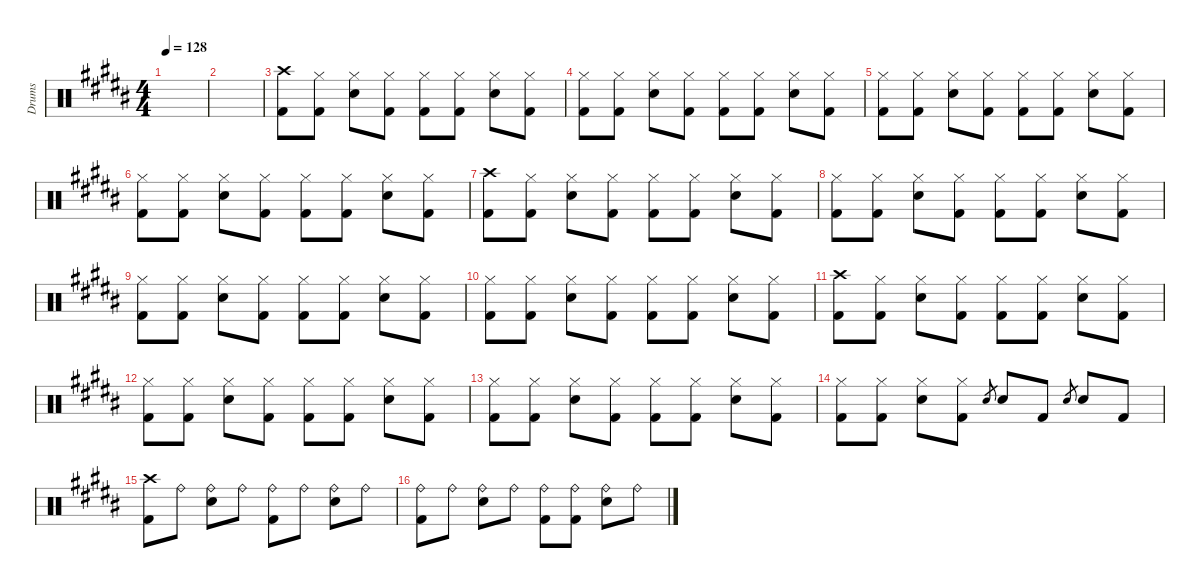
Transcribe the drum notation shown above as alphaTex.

\hideDynamics
\bracketExtendMode nobrackets
\otherSystemsTrackNameOrientation horizontal
\track ("Drumkit" "Drums") {instrument percussion}
\staff {score}
\articulation defaults
\ts (4 4)
\tempo 128
\clef neutral
\scale
0.474178
\ks b
|
\scale
0.262911 |
\scale
0.262911 ("Crash high (hit)"{acc bb} "Kick (hit) 2"{acc bb}).8{beam Down} ("Kick (hit) 2"{acc bb} "Hi-Hat (closed)"{acc bb}).8{beam Down} ("Snare (hit) 2"{acc bb} "Hi-Hat (closed)"{acc bb}).8{beam Down} ("Kick (hit) 2"{acc bb} "Hi-Hat (closed)"{acc bb}).8{beam Down} ("Kick (hit) 2"{acc bb} "Hi-Hat (closed)"{acc bb}).8{beam Down} ("Kick (hit) 2"{acc bb} "Hi-Hat (closed)"{acc bb}).8{beam Down} ("Snare (hit) 2"{acc bb} "Hi-Hat (closed)"{acc bb}).8{beam Down} ("Kick (hit) 2"{acc bb} "Hi-Hat (closed)"{acc bb}).8{beam Down} |
\scale
0.333333 ("Kick (hit) 2"{acc bb} "Hi-Hat (closed)"{acc bb}).8{beam Down} ("Kick (hit) 2"{acc bb} "Hi-Hat (closed)"{acc bb}).8{beam Down} ("Snare (hit) 2"{acc bb} "Hi-Hat (closed)"{acc bb}).8{beam Down} ("Kick (hit) 2"{acc bb} "Hi-Hat (closed)"{acc bb}).8{beam Down} ("Kick (hit) 2"{acc bb} "Hi-Hat (closed)"{acc bb}).8{beam Down} ("Kick (hit) 2"{acc bb} "Hi-Hat (closed)"{acc bb}).8{beam Down} ("Snare (hit) 2"{acc bb} "Hi-Hat (closed)"{acc bb}).8{beam Down} ("Kick (hit) 2"{acc bb} "Hi-Hat (closed)"{acc bb}).8{beam Down} |
\scale
0.333333 ("Kick (hit) 2"{acc bb} "Hi-Hat (closed)"{acc bb}).8{beam Down} ("Kick (hit) 2"{acc bb} "Hi-Hat (closed)"{acc bb}).8{beam Down} ("Snare (hit) 2"{acc bb} "Hi-Hat (closed)"{acc bb}).8{beam Down} ("Kick (hit) 2"{acc bb} "Hi-Hat (closed)"{acc bb}).8{beam Down} ("Kick (hit) 2"{acc bb} "Hi-Hat (closed)"{acc bb}).8{beam Down} ("Kick (hit) 2"{acc bb} "Hi-Hat (closed)"{acc bb}).8{beam Down} ("Snare (hit) 2"{acc bb} "Hi-Hat (closed)"{acc bb}).8{beam Down} ("Kick (hit) 2"{acc bb} "Hi-Hat (closed)"{acc bb}).8{beam Down} |
\scale
0.333333 ("Kick (hit) 2"{acc bb} "Hi-Hat (closed)"{acc bb}).8{beam Down} ("Kick (hit) 2"{acc bb} "Hi-Hat (closed)"{acc bb}).8{beam Down} ("Snare (hit) 2"{acc bb} "Hi-Hat (closed)"{acc bb}).8{beam Down} ("Kick (hit) 2"{acc bb} "Hi-Hat (closed)"{acc bb}).8{beam Down} ("Kick (hit) 2"{acc bb} "Hi-Hat (closed)"{acc bb}).8{beam Down} ("Kick (hit) 2"{acc bb} "Hi-Hat (closed)"{acc bb}).8{beam Down} ("Snare (hit) 2"{acc bb} "Hi-Hat (closed)"{acc bb}).8{beam Down} ("Kick (hit) 2"{acc bb} "Hi-Hat (closed)"{acc bb}).8{beam Down} |
\scale
0.333333 ("Crash high (hit)"{acc bb} "Kick (hit) 2"{acc bb}).8{beam Down} ("Kick (hit) 2"{acc bb} "Hi-Hat (closed)"{acc bb}).8{beam Down} ("Snare (hit) 2"{acc bb} "Hi-Hat (closed)"{acc bb}).8{beam Down} ("Kick (hit) 2"{acc bb} "Hi-Hat (closed)"{acc bb}).8{beam Down} ("Kick (hit) 2"{acc bb} "Hi-Hat (closed)"{acc bb}).8{beam Down} ("Kick (hit) 2"{acc bb} "Hi-Hat (closed)"{acc bb}).8{beam Down} ("Snare (hit) 2"{acc bb} "Hi-Hat (closed)"{acc bb}).8{beam Down} ("Kick (hit) 2"{acc bb} "Hi-Hat (closed)"{acc bb}).8{beam Down} |
\scale
0.333333 ("Kick (hit) 2"{acc bb} "Hi-Hat (closed)"{acc bb}).8{beam Down} ("Kick (hit) 2"{acc bb} "Hi-Hat (closed)"{acc bb}).8{beam Down} ("Snare (hit) 2"{acc bb} "Hi-Hat (closed)"{acc bb}).8{beam Down} ("Kick (hit) 2"{acc bb} "Hi-Hat (closed)"{acc bb}).8{beam Down} ("Kick (hit) 2"{acc bb} "Hi-Hat (closed)"{acc bb}).8{beam Down} ("Kick (hit) 2"{acc bb} "Hi-Hat (closed)"{acc bb}).8{beam Down} ("Snare (hit) 2"{acc bb} "Hi-Hat (closed)"{acc bb}).8{beam Down} ("Kick (hit) 2"{acc bb} "Hi-Hat (closed)"{acc bb}).8{beam Down} |
\scale
0.333333 ("Kick (hit) 2"{acc bb} "Hi-Hat (closed)"{acc bb}).8{beam Down} ("Kick (hit) 2"{acc bb} "Hi-Hat (closed)"{acc bb}).8{beam Down} ("Snare (hit) 2"{acc bb} "Hi-Hat (closed)"{acc bb}).8{beam Down} ("Kick (hit) 2"{acc bb} "Hi-Hat (closed)"{acc bb}).8{beam Down} ("Kick (hit) 2"{acc bb} "Hi-Hat (closed)"{acc bb}).8{beam Down} ("Kick (hit) 2"{acc bb} "Hi-Hat (closed)"{acc bb}).8{beam Down} ("Snare (hit) 2"{acc bb} "Hi-Hat (closed)"{acc bb}).8{beam Down} ("Kick (hit) 2"{acc bb} "Hi-Hat (closed)"{acc bb}).8{beam Down} |
\scale
0.333333 ("Kick (hit) 2"{acc bb} "Hi-Hat (closed)"{acc bb}).8{beam Down} ("Kick (hit) 2"{acc bb} "Hi-Hat (closed)"{acc bb}).8{beam Down} ("Snare (hit) 2"{acc bb} "Hi-Hat (closed)"{acc bb}).8{beam Down} ("Kick (hit) 2"{acc bb} "Hi-Hat (closed)"{acc bb}).8{beam Down} ("Kick (hit) 2"{acc bb} "Hi-Hat (closed)"{acc bb}).8{beam Down} ("Kick (hit) 2"{acc bb} "Hi-Hat (closed)"{acc bb}).8{beam Down} ("Snare (hit) 2"{acc bb} "Hi-Hat (closed)"{acc bb}).8{beam Down} ("Kick (hit) 2"{acc bb} "Hi-Hat (closed)"{acc bb}).8{beam Down} |
\scale
0.333333 ("Crash high (hit)"{acc bb} "Kick (hit) 2"{acc bb}).8{beam Down} ("Kick (hit) 2"{acc bb} "Hi-Hat (closed)"{acc bb}).8{beam Down} ("Snare (hit) 2"{acc bb} "Hi-Hat (closed)"{acc bb}).8{beam Down} ("Kick (hit) 2"{acc bb} "Hi-Hat (closed)"{acc bb}).8{beam Down} ("Kick (hit) 2"{acc bb} "Hi-Hat (closed)"{acc bb}).8{beam Down} ("Kick (hit) 2"{acc bb} "Hi-Hat (closed)"{acc bb}).8{beam Down} ("Snare (hit) 2"{acc bb} "Hi-Hat (closed)"{acc bb}).8{beam Down} ("Kick (hit) 2"{acc bb} "Hi-Hat (closed)"{acc bb}).8{beam Down} |
\scale
0.333333 ("Kick (hit) 2"{acc bb} "Hi-Hat (closed)"{acc bb}).8{beam Down} ("Kick (hit) 2"{acc bb} "Hi-Hat (closed)"{acc bb}).8{beam Down} ("Snare (hit) 2"{acc bb} "Hi-Hat (closed)"{acc bb}).8{beam Down} ("Kick (hit) 2"{acc bb} "Hi-Hat (closed)"{acc bb}).8{beam Down} ("Kick (hit) 2"{acc bb} "Hi-Hat (closed)"{acc bb}).8{beam Down} ("Kick (hit) 2"{acc bb} "Hi-Hat (closed)"{acc bb}).8{beam Down} ("Snare (hit) 2"{acc bb} "Hi-Hat (closed)"{acc bb}).8{beam Down} ("Kick (hit) 2"{acc bb} "Hi-Hat (closed)"{acc bb}).8{beam Down} |
\scale
0.333333 ("Kick (hit) 2"{acc bb} "Hi-Hat (closed)"{acc bb}).8{beam Down} ("Kick (hit) 2"{acc bb} "Hi-Hat (closed)"{acc bb}).8{beam Down} ("Snare (hit) 2"{acc bb} "Hi-Hat (closed)"{acc bb}).8{beam Down} ("Kick (hit) 2"{acc bb} "Hi-Hat (closed)"{acc bb}).8{beam Down} ("Kick (hit) 2"{acc bb} "Hi-Hat (closed)"{acc bb}).8{beam Down} ("Kick (hit) 2"{acc bb} "Hi-Hat (closed)"{acc bb}).8{beam Down} ("Snare (hit) 2"{acc bb} "Hi-Hat (closed)"{acc bb}).8{beam Down} ("Kick (hit) 2"{acc bb} "Hi-Hat (closed)"{acc bb}).8{beam Down} |
\scale
0.333333 ("Kick (hit) 2"{acc bb} "Hi-Hat (closed)"{acc bb}).8{beam Down} ("Kick (hit) 2"{acc bb} "Hi-Hat (closed)"{acc bb}).8{beam Down} ("Snare (hit) 2"{acc bb} "Hi-Hat (closed)"{acc bb}).8{beam Down} ("Kick (hit) 2"{acc bb} "Hi-Hat (closed)"{acc bb}).8{beam Down} "Snare (hit) 2"{acc bb}.8{gr beam Up} "Snare (hit) 2"{acc bb}.8{beam Up} "Kick (hit) 2"{acc bb}.8{beam Up} "Snare (hit) 2"{acc bb}.8{gr beam Up} "Snare (hit) 2"{acc bb}.8{beam Up} "Kick (hit) 2"{acc bb}.8{beam Up} |
\scale
0.333333 ("Kick (hit) 2"{acc bb} "Crash high (hit)"{acc bb}).8{beam Down} "Ride (bell)"{acc bb}.8{beam Down} ("Ride (bell)"{acc bb} "Snare (hit) 2"{acc bb}).8{beam Down} "Ride (bell)"{acc bb}.8{beam Down} ("Ride (bell)"{acc bb} "Kick (hit) 2"{acc bb}).8{beam Down} "Ride (bell)"{acc bb}.8{beam Down} ("Ride (bell)"{acc bb} "Snare (hit) 2"{acc bb}).8{beam Down} "Ride (bell)"{acc bb}.8{beam Down} |
\scale
0.333333 ("Ride (bell)"{acc bb} "Kick (hit) 2"{acc bb}).8{beam Down} "Ride (bell)"{acc bb}.8{beam Down} ("Ride (bell)"{acc bb} "Snare (hit) 2"{acc bb}).8{beam Down} "Ride (bell)"{acc bb}.8{beam Down} ("Ride (bell)"{acc bb} "Kick (hit) 2"{acc bb}).8{beam Down} ("Ride (bell)"{acc bb} "Kick (hit) 2"{acc bb}).8{beam Down} ("Ride (bell)"{acc bb} "Snare (hit) 2"{acc bb}).8{beam Down} "Ride (bell)"{acc bb}.8{beam Down}
